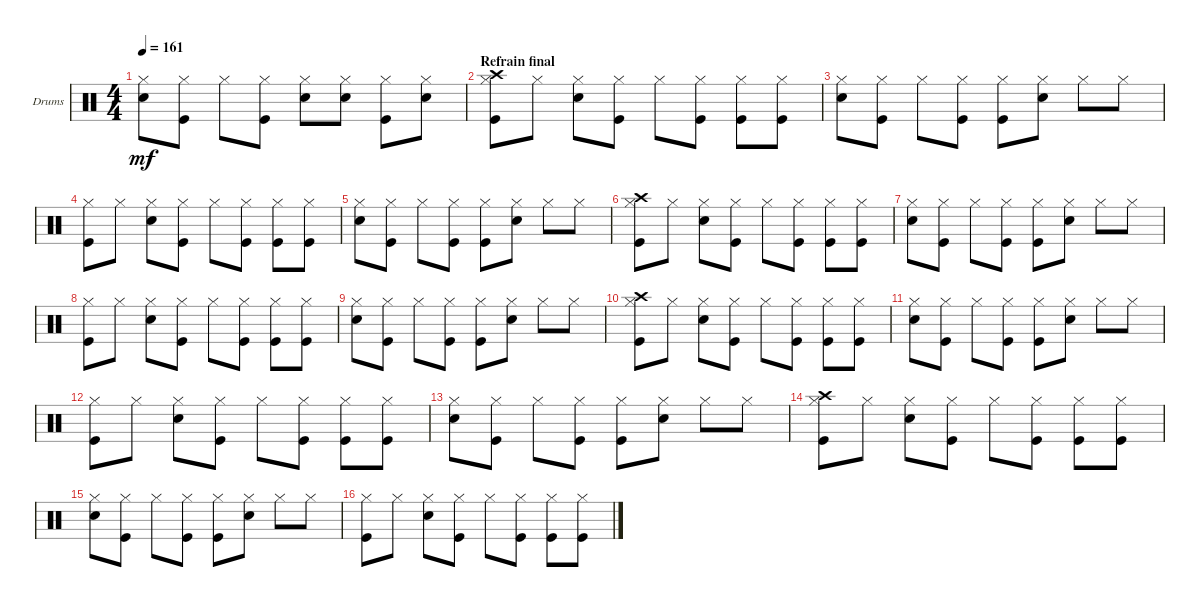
\defaultSystemsLayout 4
\bracketExtendMode groupsimilarinstruments
\firstSystemTrackNameOrientation horizontal
\otherSystemsTrackNameOrientation horizontal
\chordDiagramsInScore
\track ("Drumkit" "Drums") {instrument percussion}
\staff {score}
\articulation defaults
\ts (4 4)
\tempo 161
\clef neutral
\ks c
("Hi-Hat (closed)" "Snare (hit) 2").8{dy mf} ("Hi-Hat (closed)" "Kick (hit)").8 "Hi-Hat (closed)".8 ("Hi-Hat (closed)" "Kick (hit)").8 ("Hi-Hat (closed)" "Snare (hit) 2").8 ("Hi-Hat (closed)" "Snare (hit) 2").8 ("Hi-Hat (closed)" "Kick (hit)").8 ("Hi-Hat (closed)" "Snare (hit) 2").8 |
\section ("" "Refrain final")
("Hi-Hat (closed)" "Kick (hit)" "Crash high (hit)").8 "Hi-Hat (closed)".8 ("Hi-Hat (closed)" "Snare (hit) 2").8 ("Hi-Hat (closed)" "Kick (hit)").8 "Hi-Hat (closed)".8 ("Hi-Hat (closed)" "Kick (hit)").8 ("Hi-Hat (closed)" "Kick (hit)").8 ("Hi-Hat (closed)" "Kick (hit)").8 |
("Hi-Hat (closed)" "Snare (hit) 2").8 ("Hi-Hat (closed)" "Kick (hit)").8 "Hi-Hat (closed)".8 ("Hi-Hat (closed)" "Kick (hit)").8 ("Hi-Hat (closed)" "Kick (hit)").8 ("Hi-Hat (closed)" "Snare (hit) 2").8 "Hi-Hat (closed)".8 "Hi-Hat (closed)".8 |
("Hi-Hat (closed)" "Kick (hit)").8 "Hi-Hat (closed)".8 ("Hi-Hat (closed)" "Snare (hit) 2").8 ("Hi-Hat (closed)" "Kick (hit)").8 "Hi-Hat (closed)".8 ("Hi-Hat (closed)" "Kick (hit)").8 ("Hi-Hat (closed)" "Kick (hit)").8 ("Hi-Hat (closed)" "Kick (hit)").8 |
("Hi-Hat (closed)" "Snare (hit) 2").8 ("Hi-Hat (closed)" "Kick (hit)").8 "Hi-Hat (closed)".8 ("Hi-Hat (closed)" "Kick (hit)").8 ("Hi-Hat (closed)" "Kick (hit)").8 ("Hi-Hat (closed)" "Snare (hit) 2").8 "Hi-Hat (closed)".8 "Hi-Hat (closed)".8 |
("Hi-Hat (closed)" "Kick (hit)" "Crash high (hit)").8 "Hi-Hat (closed)".8 ("Hi-Hat (closed)" "Snare (hit) 2").8 ("Hi-Hat (closed)" "Kick (hit)").8 "Hi-Hat (closed)".8 ("Hi-Hat (closed)" "Kick (hit)").8 ("Hi-Hat (closed)" "Kick (hit)").8 ("Hi-Hat (closed)" "Kick (hit)").8 |
("Hi-Hat (closed)" "Snare (hit) 2").8 ("Hi-Hat (closed)" "Kick (hit)").8 "Hi-Hat (closed)".8 ("Hi-Hat (closed)" "Kick (hit)").8 ("Hi-Hat (closed)" "Kick (hit)").8 ("Hi-Hat (closed)" "Snare (hit) 2").8 "Hi-Hat (closed)".8 "Hi-Hat (closed)".8 |
("Hi-Hat (closed)" "Kick (hit)").8 "Hi-Hat (closed)".8 ("Hi-Hat (closed)" "Snare (hit) 2").8 ("Hi-Hat (closed)" "Kick (hit)").8 "Hi-Hat (closed)".8 ("Hi-Hat (closed)" "Kick (hit)").8 ("Hi-Hat (closed)" "Kick (hit)").8 ("Hi-Hat (closed)" "Kick (hit)").8 |
("Hi-Hat (closed)" "Snare (hit) 2").8 ("Hi-Hat (closed)" "Kick (hit)").8 "Hi-Hat (closed)".8 ("Hi-Hat (closed)" "Kick (hit)").8 ("Hi-Hat (closed)" "Kick (hit)").8 ("Hi-Hat (closed)" "Snare (hit) 2").8 "Hi-Hat (closed)".8 "Hi-Hat (closed)".8 |
("Hi-Hat (closed)" "Kick (hit)" "Crash high (hit)").8 "Hi-Hat (closed)".8 ("Hi-Hat (closed)" "Snare (hit) 2").8 ("Hi-Hat (closed)" "Kick (hit)").8 "Hi-Hat (closed)".8 ("Hi-Hat (closed)" "Kick (hit)").8 ("Hi-Hat (closed)" "Kick (hit)").8 ("Hi-Hat (closed)" "Kick (hit)").8 |
("Hi-Hat (closed)" "Snare (hit) 2").8 ("Hi-Hat (closed)" "Kick (hit)").8 "Hi-Hat (closed)".8 ("Hi-Hat (closed)" "Kick (hit)").8 ("Hi-Hat (closed)" "Kick (hit)").8 ("Hi-Hat (closed)" "Snare (hit) 2").8 "Hi-Hat (closed)".8 "Hi-Hat (closed)".8 |
("Hi-Hat (closed)" "Kick (hit)").8 "Hi-Hat (closed)".8 ("Hi-Hat (closed)" "Snare (hit) 2").8 ("Hi-Hat (closed)" "Kick (hit)").8 "Hi-Hat (closed)".8 ("Hi-Hat (closed)" "Kick (hit)").8 ("Hi-Hat (closed)" "Kick (hit)").8 ("Hi-Hat (closed)" "Kick (hit)").8 |
("Hi-Hat (closed)" "Snare (hit) 2").8 ("Hi-Hat (closed)" "Kick (hit)").8 "Hi-Hat (closed)".8 ("Hi-Hat (closed)" "Kick (hit)").8 ("Hi-Hat (closed)" "Kick (hit)").8 ("Hi-Hat (closed)" "Snare (hit) 2").8 "Hi-Hat (closed)".8 "Hi-Hat (closed)".8 |
("Hi-Hat (closed)" "Kick (hit)" "Crash high (hit)").8 "Hi-Hat (closed)".8 ("Hi-Hat (closed)" "Snare (hit) 2").8 ("Hi-Hat (closed)" "Kick (hit)").8 "Hi-Hat (closed)".8 ("Hi-Hat (closed)" "Kick (hit)").8 ("Hi-Hat (closed)" "Kick (hit)").8 ("Hi-Hat (closed)" "Kick (hit)").8 |
("Hi-Hat (closed)" "Snare (hit) 2").8 ("Hi-Hat (closed)" "Kick (hit)").8 "Hi-Hat (closed)".8 ("Hi-Hat (closed)" "Kick (hit)").8 ("Hi-Hat (closed)" "Kick (hit)").8 ("Hi-Hat (closed)" "Snare (hit) 2").8 "Hi-Hat (closed)".8 "Hi-Hat (closed)".8 |
("Hi-Hat (closed)" "Kick (hit)").8 "Hi-Hat (closed)".8 ("Hi-Hat (closed)" "Snare (hit) 2").8 ("Hi-Hat (closed)" "Kick (hit)").8 "Hi-Hat (closed)".8 ("Hi-Hat (closed)" "Kick (hit)").8 ("Hi-Hat (closed)" "Kick (hit)").8 ("Hi-Hat (closed)" "Kick (hit)").8
